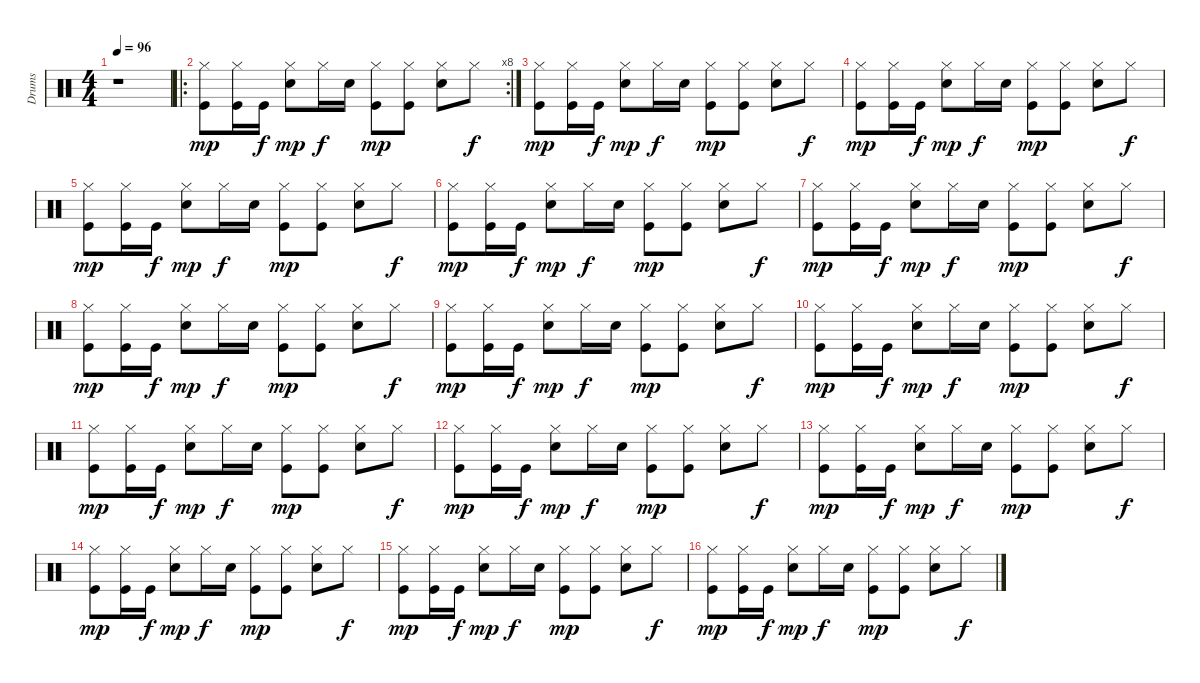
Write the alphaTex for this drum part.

\track ("Drums" "Drums") {instrument percussion}
\staff {score}
\articulation defaults
\ts (4 4)
\tempo 96
\clef neutral
\ks c
r.1{dy mp} |
\ro
\rc 8
("Hi-Hat (closed)" "Kick (hit)").8 ("Hi-Hat (closed)" "Kick (hit)").16 "Kick (hit)".16{dy f} ("Hi-Hat (closed)" "Electric Snare (hit)").8{dy mp} "Hi-Hat (closed)".16{dy f} "Electric Snare (hit)".16 ("Hi-Hat (closed)" "Kick (hit)").8{dy mp} ("Hi-Hat (closed)" "Kick (hit)").8 ("Hi-Hat (closed)" "Electric Snare (hit)").8 "Hi-Hat (closed)".8{dy f} |
("Hi-Hat (closed)" "Kick (hit)").8{dy mp} ("Hi-Hat (closed)" "Kick (hit)").16 "Kick (hit)".16{dy f} ("Hi-Hat (closed)" "Electric Snare (hit)").8{dy mp} "Hi-Hat (closed)".16{dy f} "Electric Snare (hit)".16 ("Hi-Hat (closed)" "Kick (hit)").8{dy mp} ("Hi-Hat (closed)" "Kick (hit)").8 ("Hi-Hat (closed)" "Electric Snare (hit)").8 "Hi-Hat (closed)".8{dy f} |
("Hi-Hat (closed)" "Kick (hit)").8{dy mp} ("Hi-Hat (closed)" "Kick (hit)").16 "Kick (hit)".16{dy f} ("Hi-Hat (closed)" "Electric Snare (hit)").8{dy mp} "Hi-Hat (closed)".16{dy f} "Electric Snare (hit)".16 ("Hi-Hat (closed)" "Kick (hit)").8{dy mp} ("Hi-Hat (closed)" "Kick (hit)").8 ("Hi-Hat (closed)" "Electric Snare (hit)").8 "Hi-Hat (closed)".8{dy f} |
("Hi-Hat (closed)" "Kick (hit)").8{dy mp} ("Hi-Hat (closed)" "Kick (hit)").16 "Kick (hit)".16{dy f} ("Hi-Hat (closed)" "Electric Snare (hit)").8{dy mp} "Hi-Hat (closed)".16{dy f} "Electric Snare (hit)".16 ("Hi-Hat (closed)" "Kick (hit)").8{dy mp} ("Hi-Hat (closed)" "Kick (hit)").8 ("Hi-Hat (closed)" "Electric Snare (hit)").8 "Hi-Hat (closed)".8{dy f} |
("Hi-Hat (closed)" "Kick (hit)").8{dy mp} ("Hi-Hat (closed)" "Kick (hit)").16 "Kick (hit)".16{dy f} ("Hi-Hat (closed)" "Electric Snare (hit)").8{dy mp} "Hi-Hat (closed)".16{dy f} "Electric Snare (hit)".16 ("Hi-Hat (closed)" "Kick (hit)").8{dy mp} ("Hi-Hat (closed)" "Kick (hit)").8 ("Hi-Hat (closed)" "Electric Snare (hit)").8 "Hi-Hat (closed)".8{dy f} |
("Hi-Hat (closed)" "Kick (hit)").8{dy mp} ("Hi-Hat (closed)" "Kick (hit)").16 "Kick (hit)".16{dy f} ("Hi-Hat (closed)" "Electric Snare (hit)").8{dy mp} "Hi-Hat (closed)".16{dy f} "Electric Snare (hit)".16 ("Hi-Hat (closed)" "Kick (hit)").8{dy mp} ("Hi-Hat (closed)" "Kick (hit)").8 ("Hi-Hat (closed)" "Electric Snare (hit)").8 "Hi-Hat (closed)".8{dy f} |
("Hi-Hat (closed)" "Kick (hit)").8{dy mp} ("Hi-Hat (closed)" "Kick (hit)").16 "Kick (hit)".16{dy f} ("Hi-Hat (closed)" "Electric Snare (hit)").8{dy mp} "Hi-Hat (closed)".16{dy f} "Electric Snare (hit)".16 ("Hi-Hat (closed)" "Kick (hit)").8{dy mp} ("Hi-Hat (closed)" "Kick (hit)").8 ("Hi-Hat (closed)" "Electric Snare (hit)").8 "Hi-Hat (closed)".8{dy f} |
("Hi-Hat (closed)" "Kick (hit)").8{dy mp} ("Hi-Hat (closed)" "Kick (hit)").16 "Kick (hit)".16{dy f} ("Hi-Hat (closed)" "Electric Snare (hit)").8{dy mp} "Hi-Hat (closed)".16{dy f} "Electric Snare (hit)".16 ("Hi-Hat (closed)" "Kick (hit)").8{dy mp} ("Hi-Hat (closed)" "Kick (hit)").8 ("Hi-Hat (closed)" "Electric Snare (hit)").8 "Hi-Hat (closed)".8{dy f} |
("Hi-Hat (closed)" "Kick (hit)").8{dy mp} ("Hi-Hat (closed)" "Kick (hit)").16 "Kick (hit)".16{dy f} ("Hi-Hat (closed)" "Electric Snare (hit)").8{dy mp} "Hi-Hat (closed)".16{dy f} "Electric Snare (hit)".16 ("Hi-Hat (closed)" "Kick (hit)").8{dy mp} ("Hi-Hat (closed)" "Kick (hit)").8 ("Hi-Hat (closed)" "Electric Snare (hit)").8 "Hi-Hat (closed)".8{dy f} |
("Hi-Hat (closed)" "Kick (hit)").8{dy mp} ("Hi-Hat (closed)" "Kick (hit)").16 "Kick (hit)".16{dy f} ("Hi-Hat (closed)" "Electric Snare (hit)").8{dy mp} "Hi-Hat (closed)".16{dy f} "Electric Snare (hit)".16 ("Hi-Hat (closed)" "Kick (hit)").8{dy mp} ("Hi-Hat (closed)" "Kick (hit)").8 ("Hi-Hat (closed)" "Electric Snare (hit)").8 "Hi-Hat (closed)".8{dy f} |
("Hi-Hat (closed)" "Kick (hit)").8{dy mp} ("Hi-Hat (closed)" "Kick (hit)").16 "Kick (hit)".16{dy f} ("Hi-Hat (closed)" "Electric Snare (hit)").8{dy mp} "Hi-Hat (closed)".16{dy f} "Electric Snare (hit)".16 ("Hi-Hat (closed)" "Kick (hit)").8{dy mp} ("Hi-Hat (closed)" "Kick (hit)").8 ("Hi-Hat (closed)" "Electric Snare (hit)").8 "Hi-Hat (closed)".8{dy f} |
("Hi-Hat (closed)" "Kick (hit)").8{dy mp} ("Hi-Hat (closed)" "Kick (hit)").16 "Kick (hit)".16{dy f} ("Hi-Hat (closed)" "Electric Snare (hit)").8{dy mp} "Hi-Hat (closed)".16{dy f} "Electric Snare (hit)".16 ("Hi-Hat (closed)" "Kick (hit)").8{dy mp} ("Hi-Hat (closed)" "Kick (hit)").8 ("Hi-Hat (closed)" "Electric Snare (hit)").8 "Hi-Hat (closed)".8{dy f} |
("Hi-Hat (closed)" "Kick (hit)").8{dy mp} ("Hi-Hat (closed)" "Kick (hit)").16 "Kick (hit)".16{dy f} ("Hi-Hat (closed)" "Electric Snare (hit)").8{dy mp} "Hi-Hat (closed)".16{dy f} "Electric Snare (hit)".16 ("Hi-Hat (closed)" "Kick (hit)").8{dy mp} ("Hi-Hat (closed)" "Kick (hit)").8 ("Hi-Hat (closed)" "Electric Snare (hit)").8 "Hi-Hat (closed)".8{dy f} |
("Hi-Hat (closed)" "Kick (hit)").8{dy mp} ("Hi-Hat (closed)" "Kick (hit)").16 "Kick (hit)".16{dy f} ("Hi-Hat (closed)" "Electric Snare (hit)").8{dy mp} "Hi-Hat (closed)".16{dy f} "Electric Snare (hit)".16 ("Hi-Hat (closed)" "Kick (hit)").8{dy mp} ("Hi-Hat (closed)" "Kick (hit)").8 ("Hi-Hat (closed)" "Electric Snare (hit)").8 "Hi-Hat (closed)".8{dy f} |
("Hi-Hat (closed)" "Kick (hit)").8{dy mp} ("Hi-Hat (closed)" "Kick (hit)").16 "Kick (hit)".16{dy f} ("Hi-Hat (closed)" "Electric Snare (hit)").8{dy mp} "Hi-Hat (closed)".16{dy f} "Electric Snare (hit)".16 ("Hi-Hat (closed)" "Kick (hit)").8{dy mp} ("Hi-Hat (closed)" "Kick (hit)").8 ("Hi-Hat (closed)" "Electric Snare (hit)").8 "Hi-Hat (closed)".8{dy f}
